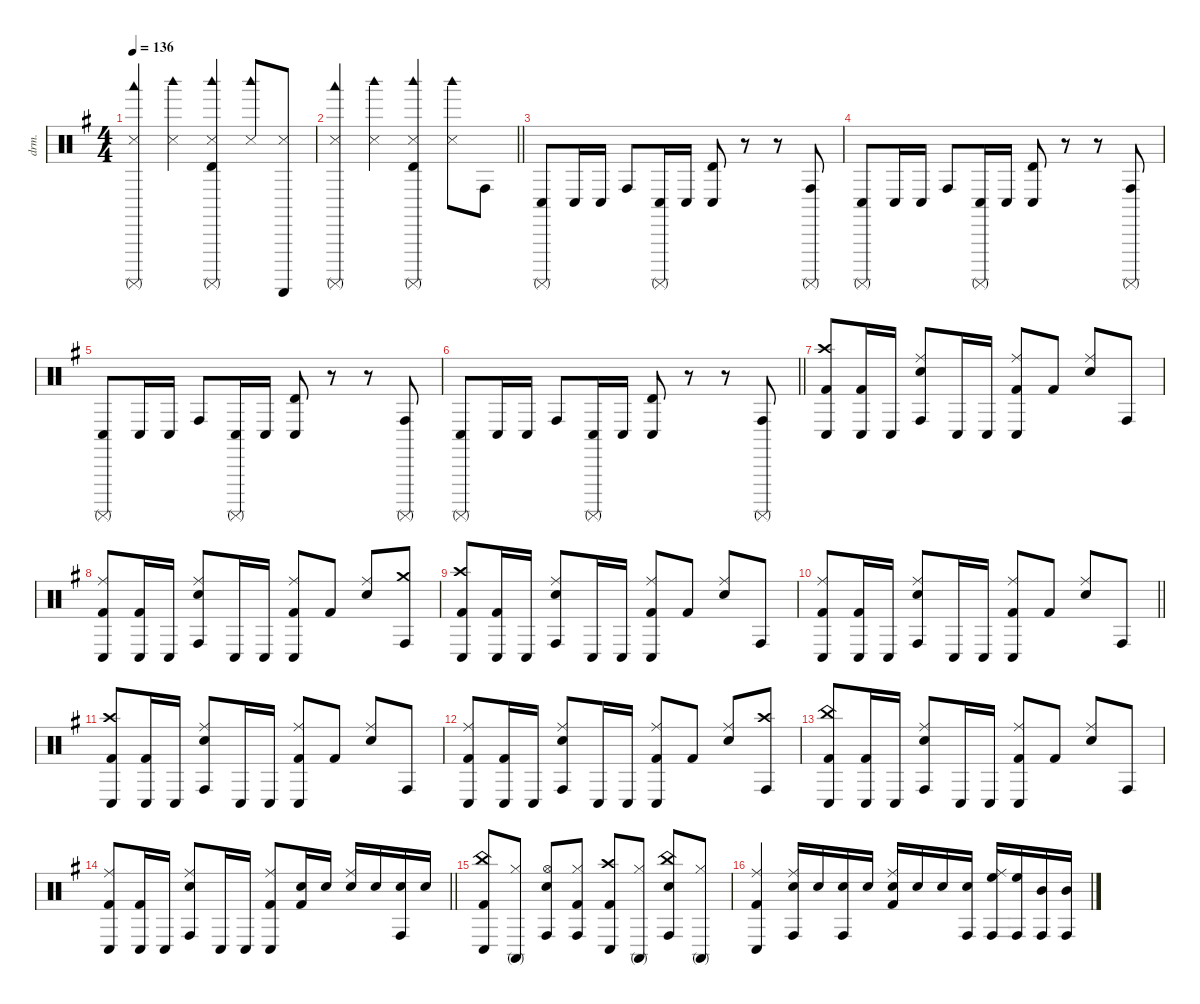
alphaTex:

\defaultSystemsLayout 4
\hideDynamics
\bracketExtendMode nobrackets
\otherSystemsTrackNameOrientation horizontal
\track ("Batterie" "drm.") {instrument percussion}
\staff {score}
\articulation defaults
\ts (4 4)
\tempo 136
\clef neutral
\ks g
("Snare (side stick) 3"{acc forcenatural} "Woodblock low (hit)"{acc forcenatural} "Surdo (mute)"{acc forcenatural}).4{dy f beam Up} ("Snare (side stick) 3"{acc forcenatural} "Woodblock high (hit)"{acc forcenatural}).4{beam Down} ("Snare (side stick) 3"{acc forcenatural} "Woodblock high (hit)"{acc forcenatural} "Timbale high (hit)"{acc forcenatural} "Surdo (mute)"{acc forcenatural}).4{beam Up} ("Snare (side stick) 3"{acc forcenatural} "Woodblock high (hit)"{acc forcenatural}).8{beam Up} ("Snare (side stick) 3"{acc forcenatural} "Guiro (scrap-return)"{acc forcenatural}).8{beam Up} |
\barLineRight lightlight
("Snare (side stick) 3"{acc forcenatural} "Woodblock low (hit)"{acc forcenatural} "Surdo (mute)"{acc forcenatural}).4{beam Up} ("Snare (side stick) 3"{acc forcenatural} "Woodblock high (hit)"{acc forcenatural}).4{beam Down} ("Snare (side stick) 3"{acc forcenatural} "Woodblock high (hit)"{acc forcenatural} "Timbale high (hit)"{acc forcenatural} "Surdo (mute)"{acc forcenatural}).4{beam Up} ("Snare (side stick) 3"{acc forcenatural} "Woodblock high (hit)"{acc forcenatural}).8{beam Down} "Conga high (hit)"{acc forcenatural}.8{beam Down} |
("Conga low (hit)"{acc forcenatural} "Surdo (mute)"{acc forcenatural}).8{beam Up} "Conga low (hit)"{acc forcenatural}.16{beam Up} "Conga low (hit)"{acc forcenatural}.16{beam Up} "Conga high (hit)"{acc forcenatural}.8{beam Up} ("Conga low (hit)"{acc forcenatural} "Surdo (mute)"{acc forcenatural}).16{beam Up} "Conga low (hit)"{acc forcenatural}.16{beam Up} ("Conga low (hit)"{acc forcenatural} "Timbale high (hit)"{acc forcenatural}).8{beam Up} r.8{beam Up} r.8{beam Up} ("Conga high (hit)"{acc forcenatural} "Surdo (mute)"{acc forcenatural}).8{beam Up} |
("Conga low (hit)"{acc forcenatural} "Surdo (mute)"{acc forcenatural}).8{beam Up} "Conga low (hit)"{acc forcenatural}.16{beam Up} "Conga low (hit)"{acc forcenatural}.16{beam Up} "Conga high (hit)"{acc forcenatural}.8{beam Up} ("Conga low (hit)"{acc forcenatural} "Surdo (mute)"{acc forcenatural}).16{beam Up} "Conga low (hit)"{acc forcenatural}.16{beam Up} ("Conga low (hit)"{acc forcenatural} "Timbale high (hit)"{acc forcenatural}).8{beam Up} r.8{beam Up} r.8{beam Up} ("Conga high (hit)"{acc forcenatural} "Surdo (mute)"{acc forcenatural}).8{beam Up} |
("Conga low (hit)"{acc forcenatural} "Surdo (mute)"{acc forcenatural}).8{beam Up} "Conga low (hit)"{acc forcenatural}.16{beam Up} "Conga low (hit)"{acc forcenatural}.16{beam Up} "Conga high (hit)"{acc forcenatural}.8{beam Up} ("Conga low (hit)"{acc forcenatural} "Surdo (mute)"{acc forcenatural}).16{beam Up} "Conga low (hit)"{acc forcenatural}.16{beam Up} ("Conga low (hit)"{acc forcenatural} "Timbale high (hit)"{acc forcenatural}).8{beam Up} r.8{beam Up} r.8{beam Up} ("Conga high (hit)"{acc forcenatural} "Surdo (mute)"{acc forcenatural}).8{beam Up} |
\barLineRight lightlight
("Conga low (hit)"{acc forcenatural} "Surdo (mute)"{acc forcenatural}).8{beam Up} "Conga low (hit)"{acc forcenatural}.16{beam Up} "Conga low (hit)"{acc forcenatural}.16{beam Up} "Conga high (hit)"{acc forcenatural}.8{beam Up} ("Conga low (hit)"{acc forcenatural} "Surdo (mute)"{acc forcenatural}).16{beam Up} "Conga low (hit)"{acc forcenatural}.16{beam Up} ("Conga low (hit)"{acc forcenatural} "Timbale high (hit)"{acc forcenatural}).8{beam Up} r.8{beam Up} r.8{beam Up} ("Conga high (hit)"{acc forcenatural} "Surdo (mute)"{acc forcenatural}).8{beam Up} |
("Crash high (hit)"{acc forcenatural} "Conga low (hit)"{acc forcenatural} "Kick (hit) 2"{acc forcenatural}).8{beam Up} ("Conga low (hit)"{acc forcenatural} "Kick (hit) 2"{acc forcenatural}).16{beam Up} "Conga low (hit)"{acc forcenatural}.16{beam Up} ("Ride (middle)"{acc forcenatural} "Conga high (hit)"{acc forcenatural} "Snare (hit) 2"{acc forcenatural}).8{beam Up} "Conga low (hit)"{acc forcenatural}.16{beam Up} "Conga low (hit)"{acc forcenatural}.16{beam Up} ("Ride (middle)"{acc forcenatural} "Conga low (hit)"{acc forcenatural} "Kick (hit) 2"{acc forcenatural}).8{beam Up} "Kick (hit) 2"{acc forcenatural}.8{beam Up} ("Ride (middle)"{acc forcenatural} "Snare (hit) 2"{acc forcenatural}).8{beam Up} "Conga high (hit)"{acc forcenatural}.8{beam Up} |
("Ride (middle)"{acc forcenatural} "Conga low (hit)"{acc forcenatural} "Kick (hit) 2"{acc forcenatural}).8{beam Up} ("Conga low (hit)"{acc forcenatural} "Kick (hit) 2"{acc forcenatural}).16{beam Up} "Conga low (hit)"{acc forcenatural}.16{beam Up} ("Ride (middle)"{acc forcenatural} "Conga high (hit)"{acc forcenatural} "Snare (hit) 2"{acc forcenatural}).8{beam Up} "Conga low (hit)"{acc forcenatural}.16{beam Up} "Conga low (hit)"{acc forcenatural}.16{beam Up} ("Ride (middle)"{acc forcenatural} "Conga low (hit)"{acc forcenatural} "Kick (hit) 2"{acc forcenatural}).8{beam Up} "Kick (hit) 2"{acc forcenatural}.8{beam Up} ("Ride (middle)"{acc forcenatural} "Snare (hit) 2"{acc forcenatural}).8{beam Up} ("Crash medium (hit)"{acc forcenatural} "Conga high (hit)"{acc forcenatural}).8{beam Up} |
("Crash high (hit)"{acc forcenatural} "Conga low (hit)"{acc forcenatural} "Kick (hit) 2"{acc forcenatural}).8{beam Up} ("Conga low (hit)"{acc forcenatural} "Kick (hit) 2"{acc forcenatural}).16{beam Up} "Conga low (hit)"{acc forcenatural}.16{beam Up} ("Ride (middle)"{acc forcenatural} "Conga high (hit)"{acc forcenatural} "Snare (hit) 2"{acc forcenatural}).8{beam Up} "Conga low (hit)"{acc forcenatural}.16{beam Up} "Conga low (hit)"{acc forcenatural}.16{beam Up} ("Ride (middle)"{acc forcenatural} "Conga low (hit)"{acc forcenatural} "Kick (hit) 2"{acc forcenatural}).8{beam Up} "Kick (hit) 2"{acc forcenatural}.8{beam Up} ("Ride (middle)"{acc forcenatural} "Snare (hit) 2"{acc forcenatural}).8{beam Up} "Conga high (hit)"{acc forcenatural}.8{beam Up} |
\barLineRight lightlight
("Ride (middle)"{acc forcenatural} "Conga low (hit)"{acc forcenatural} "Kick (hit) 2"{acc forcenatural}).8{beam Up} ("Conga low (hit)"{acc forcenatural} "Kick (hit) 2"{acc forcenatural}).16{beam Up} "Conga low (hit)"{acc forcenatural}.16{beam Up} ("Ride (middle)"{acc forcenatural} "Conga high (hit)"{acc forcenatural} "Snare (hit) 2"{acc forcenatural}).8{beam Up} "Conga low (hit)"{acc forcenatural}.16{beam Up} "Conga low (hit)"{acc forcenatural}.16{beam Up} ("Ride (middle)"{acc forcenatural} "Conga low (hit)"{acc forcenatural} "Kick (hit) 2"{acc forcenatural}).8{beam Up} "Kick (hit) 2"{acc forcenatural}.8{beam Up} ("Ride (middle)"{acc forcenatural} "Snare (hit) 2"{acc forcenatural}).8{beam Up} "Conga high (hit)"{acc forcenatural}.8{beam Up} |
("Crash high (hit)"{acc forcenatural} "Conga low (hit)"{acc forcenatural} "Kick (hit) 2"{acc forcenatural}).8{beam Up} ("Conga low (hit)"{acc forcenatural} "Kick (hit) 2"{acc forcenatural}).16{beam Up} "Conga low (hit)"{acc forcenatural}.16{beam Up} ("Ride (middle)"{acc forcenatural} "Conga high (hit)"{acc forcenatural} "Snare (hit) 2"{acc forcenatural}).8{beam Up} "Conga low (hit)"{acc forcenatural}.16{beam Up} "Conga low (hit)"{acc forcenatural}.16{beam Up} ("Ride (middle)"{acc forcenatural} "Conga low (hit)"{acc forcenatural} "Kick (hit) 2"{acc forcenatural}).8{beam Up} "Kick (hit) 2"{acc forcenatural}.8{beam Up} ("Ride (middle)"{acc forcenatural} "Snare (hit) 2"{acc forcenatural}).8{beam Up} "Conga high (hit)"{acc forcenatural}.8{beam Up} |
("Ride (middle)"{acc forcenatural} "Conga low (hit)"{acc forcenatural} "Kick (hit) 2"{acc forcenatural}).8{beam Up} ("Conga low (hit)"{acc forcenatural} "Kick (hit) 2"{acc forcenatural}).16{beam Up} "Conga low (hit)"{acc forcenatural}.16{beam Up} ("Ride (middle)"{acc forcenatural} "Conga high (hit)"{acc forcenatural} "Snare (hit) 2"{acc forcenatural}).8{beam Up} "Conga low (hit)"{acc forcenatural}.16{beam Up} "Conga low (hit)"{acc forcenatural}.16{beam Up} ("Ride (middle)"{acc forcenatural} "Conga low (hit)"{acc forcenatural} "Kick (hit) 2"{acc forcenatural}).8{beam Up} "Kick (hit) 2"{acc forcenatural}.8{beam Up} ("Ride (middle)"{acc forcenatural} "Snare (hit) 2"{acc forcenatural}).8{beam Up} ("Crash high (hit)"{acc forcenatural} "Conga high (hit)"{acc forcenatural}).8{beam Up} |
("China (hit)"{acc forcenatural} "Conga low (hit)"{acc forcenatural} "Kick (hit) 2"{acc forcenatural}).8{beam Up} ("Conga low (hit)"{acc forcenatural} "Kick (hit) 2"{acc forcenatural}).16{beam Up} "Conga low (hit)"{acc forcenatural}.16{beam Up} ("Ride (middle)"{acc forcenatural} "Conga high (hit)"{acc forcenatural} "Snare (hit) 2"{acc forcenatural}).8{beam Up} "Conga low (hit)"{acc forcenatural}.16{beam Up} "Conga low (hit)"{acc forcenatural}.16{beam Up} ("Ride (middle)"{acc forcenatural} "Conga low (hit)"{acc forcenatural} "Kick (hit) 2"{acc forcenatural}).8{beam Up} "Kick (hit) 2"{acc forcenatural}.8{beam Up} ("Ride (middle)"{acc forcenatural} "Snare (hit) 2"{acc forcenatural}).8{beam Up} "Conga high (hit)"{acc forcenatural}.8{beam Up} |
\barLineRight lightlight
("Ride (middle)"{acc forcenatural} "Conga low (hit)"{acc forcenatural} "Kick (hit) 2"{acc forcenatural}).8{beam Up} ("Conga low (hit)"{acc forcenatural} "Kick (hit) 2"{acc forcenatural}).16{beam Up} "Conga low (hit)"{acc forcenatural}.16{beam Up} ("Ride (middle)"{acc forcenatural} "Conga high (hit)"{acc forcenatural} "Snare (hit) 2"{acc forcenatural}).8{beam Up} "Conga low (hit)"{acc forcenatural}.16{beam Up} "Conga low (hit)"{acc forcenatural}.16{beam Up} ("Ride (middle)"{acc forcenatural} "Conga low (hit)"{acc forcenatural} "Kick (hit) 2"{acc forcenatural}).8{beam Up} ("Snare (hit) 2"{acc forcenatural} "Kick (hit) 2"{acc forcenatural}).16{beam Up} "Snare (hit) 2"{acc forcenatural}.16{beam Up} ("Ride (middle)"{acc forcenatural} "Snare (hit) 2"{acc forcenatural}).16{beam Up} "Snare (hit) 2"{acc forcenatural}.16{beam Up} ("Conga high (hit)"{acc forcenatural} "Snare (hit) 2"{acc forcenatural}).16{beam Up} "Snare (hit) 2"{acc forcenatural}.16{beam Up} |
("China (hit)"{acc forcenatural} "Conga low (hit)"{acc forcenatural} "Kick (hit) 2"{acc forcenatural}).8{beam Up} ("Hi-Hat (closed)"{acc forcenatural} "Conga high (mute)"{acc forcenatural}).8{beam Up} ("Hi-Hat (open)"{acc forcenatural} "Conga high (hit)"{acc forcenatural} "Snare (hit) 2"{acc forcenatural}).8{beam Up} ("Hi-Hat (closed)"{acc forcenatural} "Conga high (hit)"{acc forcenatural} "Kick (hit) 2"{acc forcenatural}).8{beam Up} ("Crash high (hit)"{acc forcenatural} "Conga low (hit)"{acc forcenatural} "Kick (hit) 2"{acc forcenatural}).8{beam Up} ("Hi-Hat (closed)"{acc forcenatural} "Conga high (mute)"{acc forcenatural}).8{beam Up} ("China (hit)"{acc forcenatural} "Conga high (hit)"{acc forcenatural} "Snare (hit) 2"{acc forcenatural}).8{beam Up} ("Hi-Hat (closed)"{acc forcenatural} "Conga high (mute)"{acc forcenatural}).8{beam Up} |
("Ride (middle)"{acc forcenatural} "Conga low (hit)"{acc forcenatural} "Kick (hit) 2"{acc forcenatural}).4{beam Up} ("Ride (middle)"{acc forcenatural} "Conga high (hit)"{acc forcenatural} "Snare (hit) 2"{acc forcenatural}).16{beam Up} "Snare (hit) 2"{acc forcenatural}.16{beam Up} ("Conga high (hit)"{acc forcenatural} "Snare (hit) 2"{acc forcenatural}).16{beam Up} "Snare (hit) 2"{acc forcenatural}.16{beam Up} ("Ride (middle)"{acc forcenatural} "Snare (hit) 2"{acc forcenatural} "Kick (hit) 2"{acc forcenatural}).16{beam Up} "Snare (hit) 2"{acc forcenatural}.16{beam Up} "Snare (hit) 2"{acc forcenatural}.16{beam Up} ("Conga high (hit)"{acc forcenatural} "Snare (hit) 2"{acc forcenatural}).16{beam Up} ("Ride (middle)"{acc forcenatural} "High Floor Tom (hit)"{acc forcenatural} "Conga high (hit)"{acc forcenatural}).16{beam Up} ("High Floor Tom (hit)"{acc forcenatural} "Conga high (hit)"{acc forcenatural}).16{beam Up} ("Mid Tom (hit)"{acc forcenatural} "Conga high (hit)"{acc forcenatural}).16{beam Up} ("Mid Tom (hit)"{acc forcenatural} "Conga high (hit)"{acc forcenatural}).16{beam Up}
